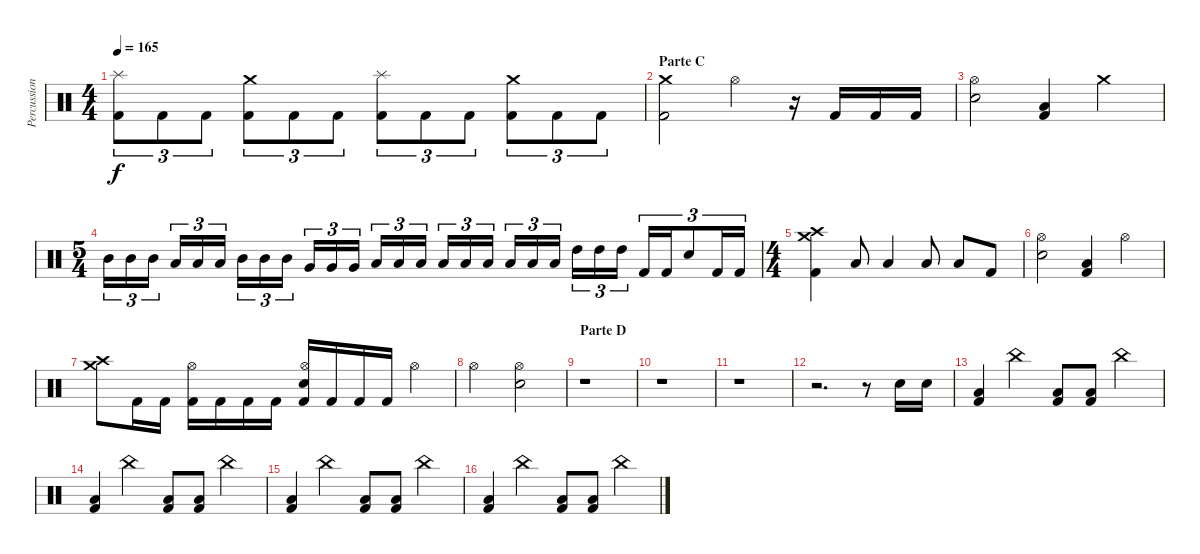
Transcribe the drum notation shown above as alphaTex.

\track ("Percussion" "Percussion") {instrument percussion}
\staff {score}
\articulation defaults
\ts (4 4)
\tempo 165
\clef neutral
\ks c
("Splash (hit)" "Kick (hit) 2").8{tu (3 2) dy f} "Kick (hit) 2".8{tu (3 2)} "Kick (hit) 2".8{tu (3 2)} ("Crash medium (hit)" "Kick (hit) 2").8{tu (3 2)} "Kick (hit) 2".8{tu (3 2)} "Kick (hit) 2".8{tu (3 2)} ("Splash (hit)" "Kick (hit) 2").8{tu (3 2)} "Kick (hit) 2".8{tu (3 2)} "Kick (hit) 2".8{tu (3 2)} ("Crash medium (hit)" "Kick (hit) 2").8{tu (3 2)} "Kick (hit) 2".8{tu (3 2)} "Kick (hit) 2".8{tu (3 2)} |
\section ("" "Parte C")
("Crash medium (hit)" "Kick (hit) 2").2 "Hi-Hat (open)".4 r.16 "Kick (hit) 2".16 "Kick (hit) 2".16 "Kick (hit) 2".16 |
("Hi-Hat (open)" "Snare (hit) 2").2 ("Low Tom (hit)" "Kick (hit) 2").4 "Crash medium (hit)".4 |
\ts (5 4)
"Mid Tom (hit)".16{tu (3 2)} "Mid Tom (hit)".16{tu (3 2)} "Mid Tom (hit)".16{tu (3 2)} "Low Tom (hit)".16{tu (3 2)} "Low Tom (hit)".16{tu (3 2)} "Low Tom (hit)".16{tu (3 2)} "Mid Tom (hit)".16{tu (3 2)} "Mid Tom (hit)".16{tu (3 2)} "Mid Tom (hit)".16{tu (3 2)} "Very Low Tom (hit)".16{tu (3 2)} "Very Low Tom (hit)".16{tu (3 2)} "Very Low Tom (hit)".16{tu (3 2)} "Low Tom (hit)".16{tu (3 2)} "Low Tom (hit)".16{tu (3 2)} "Low Tom (hit)".16{tu (3 2)} "Low Floor Tom (hit)".16{tu (3 2)} "Low Floor Tom (hit)".16{tu (3 2)} "Low Floor Tom (hit)".16{tu (3 2)} "Low Tom (hit)".16{tu (3 2)} "Low Tom (hit)".16{tu (3 2)} "Low Tom (hit)".16{tu (3 2)} "High Tom (hit)".16{tu (3 2)} "High Tom (hit)".16{tu (3 2)} "High Tom (hit)".16{tu (3 2)} "Kick (hit) 2".16{tu (3 2)} "Kick (hit) 2".16{tu (3 2)} "Snare (hit) 2".8{tu (3 2)} "Kick (hit) 2".16{tu (3 2)} "Kick (hit) 2".16{tu (3 2)} |
\ts (4 4)
("Crash medium (hit)" "Crash high (hit)" "Kick (hit) 2").4 "Low Tom (hit)".8 "Low Tom (hit)".4 "Low Tom (hit)".8 "Low Tom (hit)".8 "Kick (hit) 2".8 |
("Hi-Hat (open)" "Snare (hit) 2").2 ("Low Tom (hit)" "Kick (hit) 2").4 "Hi-Hat (open)".4 |
("Crash high (hit)" "Crash medium (hit)").8 "Kick (hit) 2".16 "Kick (hit) 2".16 ("Hi-Hat (open)" "Kick (hit) 2").16 "Kick (hit) 2".16 "Kick (hit) 2".16 "Kick (hit) 2".16 ("Hi-Hat (open)" "Snare (hit) 2" "Kick (hit) 2").16 "Kick (hit) 2".16 "Kick (hit) 2".16 "Kick (hit) 2".16 "Hi-Hat (open)".4 |
"Hi-Hat (open)".2 ("Hi-Hat (open)" "Snare (hit) 2").2 |
\section ("" "Parte D")
r.1 |
r.1 |
r.1 |
r.2{d} r.8 "Snare (hit) 2".16 "Snare (hit) 2".16 |
("Low Tom (hit)" "Kick (hit) 2").4 "China (hit)".4 ("Low Tom (hit)" "Kick (hit) 2").8 ("Low Tom (hit)" "Kick (hit) 2").8 "China (hit)".4 |
("Low Tom (hit)" "Kick (hit) 2").4 "China (hit)".4 ("Low Tom (hit)" "Kick (hit) 2").8 ("Low Tom (hit)" "Kick (hit) 2").8 "China (hit)".4 |
("Low Tom (hit)" "Kick (hit) 2").4 "China (hit)".4 ("Low Tom (hit)" "Kick (hit) 2").8 ("Low Tom (hit)" "Kick (hit) 2").8 "China (hit)".4 |
("Low Tom (hit)" "Kick (hit) 2").4 "China (hit)".4 ("Low Tom (hit)" "Kick (hit) 2").8 ("Low Tom (hit)" "Kick (hit) 2").8 "China (hit)".4
